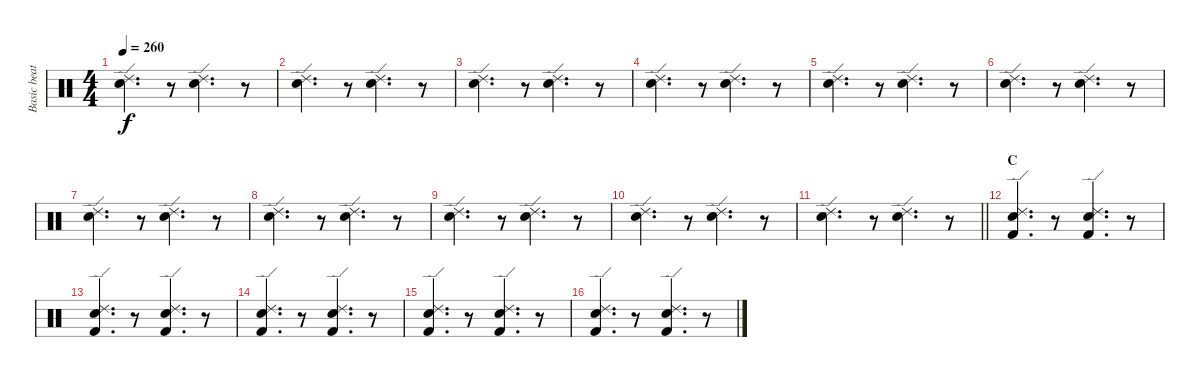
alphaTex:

\track ("Basic beat" "Basic beat") {instrument percussion}
\staff {score}
\articulation defaults
\ts (4 4)
\tempo 260
\clef neutral
\ks c
("Ride (edge) 2" "Electric Snare (hit)").4{d dy f} r.8 ("Ride (edge) 2" "Electric Snare (hit)").4{d} r.8 |
("Ride (edge) 2" "Electric Snare (hit)").4{d} r.8 ("Ride (edge) 2" "Electric Snare (hit)").4{d} r.8 |
("Ride (edge) 2" "Electric Snare (hit)").4{d} r.8 ("Ride (edge) 2" "Electric Snare (hit)").4{d} r.8 |
("Ride (edge) 2" "Electric Snare (hit)").4{d} r.8 ("Ride (edge) 2" "Electric Snare (hit)").4{d} r.8 |
("Ride (edge) 2" "Electric Snare (hit)").4{d} r.8 ("Ride (edge) 2" "Electric Snare (hit)").4{d} r.8 |
("Ride (edge) 2" "Electric Snare (hit)").4{d} r.8 ("Ride (edge) 2" "Electric Snare (hit)").4{d} r.8 |
("Ride (edge) 2" "Electric Snare (hit)").4{d} r.8 ("Ride (edge) 2" "Electric Snare (hit)").4{d} r.8 |
("Ride (edge) 2" "Electric Snare (hit)").4{d} r.8 ("Ride (edge) 2" "Electric Snare (hit)").4{d} r.8 |
("Ride (edge) 2" "Electric Snare (hit)").4{d} r.8 ("Ride (edge) 2" "Electric Snare (hit)").4{d} r.8 |
("Ride (edge) 2" "Electric Snare (hit)").4{d} r.8 ("Ride (edge) 2" "Electric Snare (hit)").4{d} r.8 |
\barLineRight lightlight
("Ride (edge) 2" "Electric Snare (hit)").4{d} r.8 ("Ride (edge) 2" "Electric Snare (hit)").4{d} r.8 |
\section ("" "C")
("Ride (edge) 2" "Electric Snare (hit)" "Kick (hit) 2").4{d} r.8 ("Ride (edge) 2" "Electric Snare (hit)" "Kick (hit) 2").4{d} r.8 |
("Ride (edge) 2" "Electric Snare (hit)" "Kick (hit) 2").4{d} r.8 ("Ride (edge) 2" "Electric Snare (hit)" "Kick (hit) 2").4{d} r.8 |
("Ride (edge) 2" "Electric Snare (hit)" "Kick (hit) 2").4{d} r.8 ("Ride (edge) 2" "Electric Snare (hit)" "Kick (hit) 2").4{d} r.8 |
("Ride (edge) 2" "Electric Snare (hit)" "Kick (hit) 2").4{d} r.8 ("Ride (edge) 2" "Electric Snare (hit)" "Kick (hit) 2").4{d} r.8 |
("Ride (edge) 2" "Electric Snare (hit)" "Kick (hit) 2").4{d} r.8 ("Ride (edge) 2" "Electric Snare (hit)" "Kick (hit) 2").4{d} r.8
